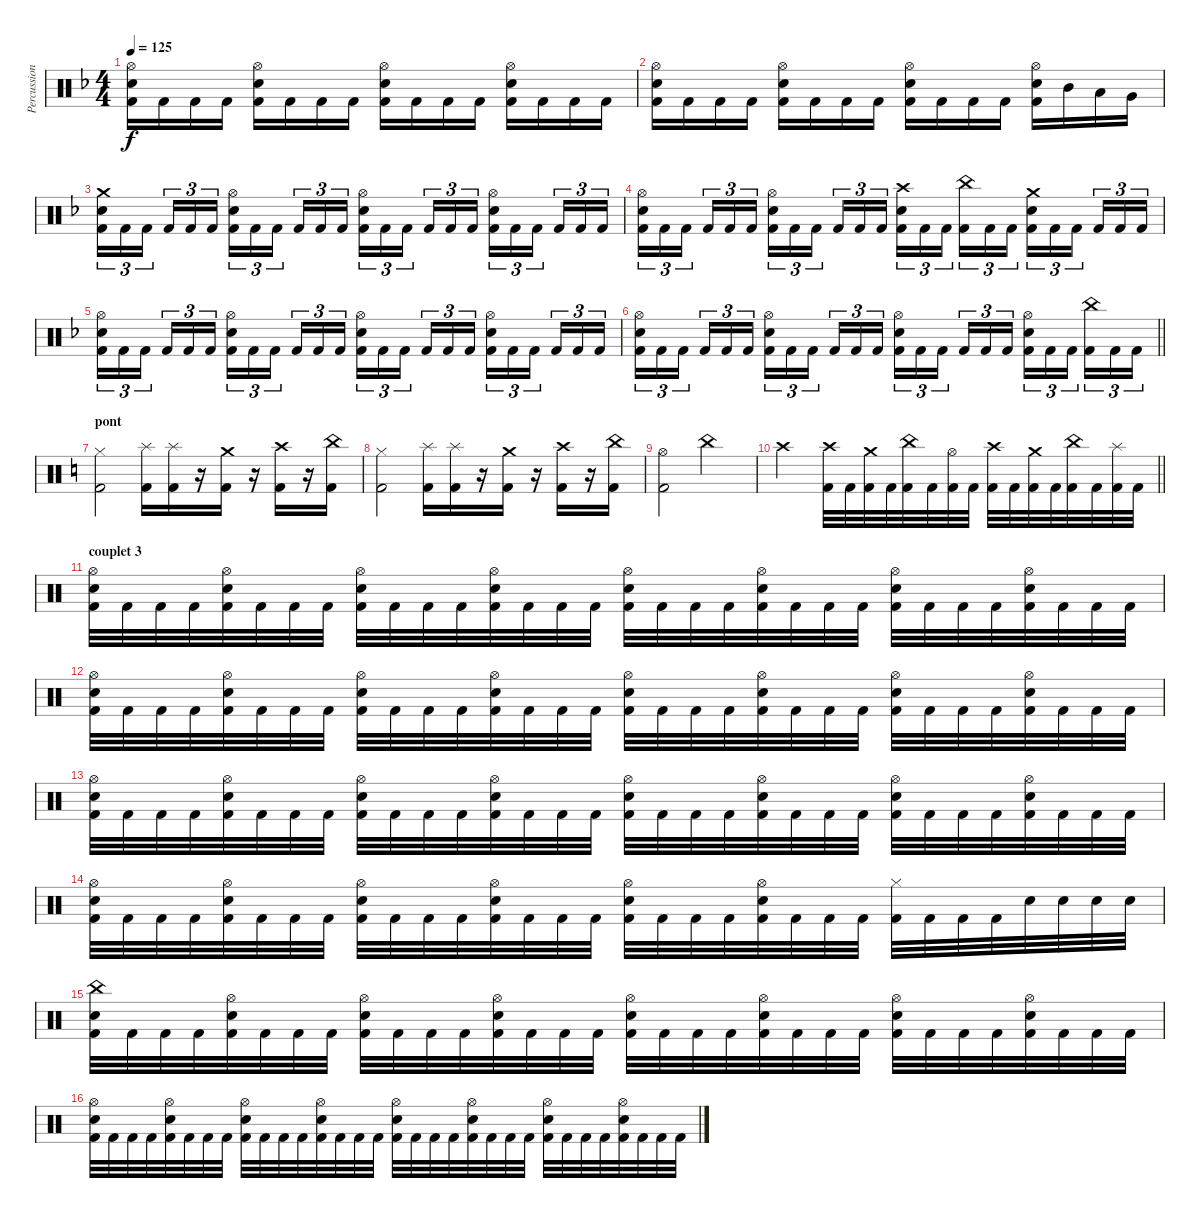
\track ("Percussions" "Percussion") {instrument percussion}
\staff {score}
\articulation defaults
\ts (4 4)
\tempo 125
\clef neutral
\ks dminor
("Hi-Hat (open)" "Electric Snare (hit)" "Kick (hit) 2").16{dy f} "Kick (hit) 2".16 "Kick (hit) 2".16 "Kick (hit) 2".16 ("Hi-Hat (open)" "Electric Snare (hit)" "Kick (hit) 2").16 "Kick (hit) 2".16 "Kick (hit) 2".16 "Kick (hit) 2".16 ("Hi-Hat (open)" "Electric Snare (hit)" "Kick (hit) 2").16 "Kick (hit) 2".16 "Kick (hit) 2".16 "Kick (hit) 2".16 ("Hi-Hat (open)" "Electric Snare (hit)" "Kick (hit) 2").16 "Kick (hit) 2".16 "Kick (hit) 2".16 "Kick (hit) 2".16 |
("Hi-Hat (open)" "Electric Snare (hit)" "Kick (hit) 2").16 "Kick (hit) 2".16 "Kick (hit) 2".16 "Kick (hit) 2".16 ("Hi-Hat (open)" "Electric Snare (hit)" "Kick (hit) 2").16 "Kick (hit) 2".16 "Kick (hit) 2".16 "Kick (hit) 2".16 ("Hi-Hat (open)" "Electric Snare (hit)" "Kick (hit) 2").16 "Kick (hit) 2".16 "Kick (hit) 2".16 "Kick (hit) 2".16 ("Hi-Hat (open)" "Electric Snare (hit)" "Kick (hit) 2").16 "Mid Tom (hit)".16 "Low Tom (hit)".16 "Very Low Tom (hit)".16 |
("Crash medium (hit)" "Electric Snare (hit)" "Kick (hit) 2").16{tu (3 2)} "Kick (hit) 2".16{tu (3 2)} "Kick (hit) 2".16{tu (3 2) beam splitsecondary} "Kick (hit) 2".16{tu (3 2)} "Kick (hit) 2".16{tu (3 2)} "Kick (hit) 2".16{tu (3 2)} ("Hi-Hat (open)" "Electric Snare (hit)" "Kick (hit) 2").16{tu (3 2)} "Kick (hit) 2".16{tu (3 2)} "Kick (hit) 2".16{tu (3 2) beam splitsecondary} "Kick (hit) 2".16{tu (3 2)} "Kick (hit) 2".16{tu (3 2)} "Kick (hit) 2".16{tu (3 2)} ("Hi-Hat (open)" "Electric Snare (hit)" "Kick (hit) 2").16{tu (3 2)} "Kick (hit) 2".16{tu (3 2)} "Kick (hit) 2".16{tu (3 2) beam splitsecondary} "Kick (hit) 2".16{tu (3 2)} "Kick (hit) 2".16{tu (3 2)} "Kick (hit) 2".16{tu (3 2)} ("Hi-Hat (open)" "Electric Snare (hit)" "Kick (hit) 2").16{tu (3 2)} "Kick (hit) 2".16{tu (3 2)} "Kick (hit) 2".16{tu (3 2) beam splitsecondary} "Kick (hit) 2".16{tu (3 2)} "Kick (hit) 2".16{tu (3 2)} "Kick (hit) 2".16{tu (3 2)} |
("Hi-Hat (open)" "Electric Snare (hit)" "Kick (hit) 2").16{tu (3 2)} "Kick (hit) 2".16{tu (3 2)} "Kick (hit) 2".16{tu (3 2) beam splitsecondary} "Kick (hit) 2".16{tu (3 2)} "Kick (hit) 2".16{tu (3 2)} "Kick (hit) 2".16{tu (3 2)} ("Hi-Hat (open)" "Electric Snare (hit)" "Kick (hit) 2").16{tu (3 2)} "Kick (hit) 2".16{tu (3 2)} "Kick (hit) 2".16{tu (3 2) beam splitsecondary} "Kick (hit) 2".16{tu (3 2)} "Kick (hit) 2".16{tu (3 2)} "Kick (hit) 2".16{tu (3 2)} ("Crash high (hit)" "Electric Snare (hit)" "Kick (hit) 2").16{tu (3 2)} "Kick (hit) 2".16{tu (3 2)} "Kick (hit) 2".16{tu (3 2) beam splitsecondary} ("China (hit)" "Kick (hit) 2").16{tu (3 2)} "Kick (hit) 2".16{tu (3 2)} "Kick (hit) 2".16{tu (3 2)} ("Crash medium (hit)" "Electric Snare (hit)" "Kick (hit) 2").16{tu (3 2)} "Kick (hit) 2".16{tu (3 2)} "Kick (hit) 2".16{tu (3 2) beam splitsecondary} "Kick (hit) 2".16{tu (3 2)} "Kick (hit) 2".16{tu (3 2)} "Kick (hit) 2".16{tu (3 2)} |
("Hi-Hat (open)" "Electric Snare (hit)" "Kick (hit) 2").16{tu (3 2)} "Kick (hit) 2".16{tu (3 2)} "Kick (hit) 2".16{tu (3 2) beam splitsecondary} "Kick (hit) 2".16{tu (3 2)} "Kick (hit) 2".16{tu (3 2)} "Kick (hit) 2".16{tu (3 2)} ("Hi-Hat (open)" "Electric Snare (hit)" "Kick (hit) 2").16{tu (3 2)} "Kick (hit) 2".16{tu (3 2)} "Kick (hit) 2".16{tu (3 2) beam splitsecondary} "Kick (hit) 2".16{tu (3 2)} "Kick (hit) 2".16{tu (3 2)} "Kick (hit) 2".16{tu (3 2)} ("Hi-Hat (open)" "Electric Snare (hit)" "Kick (hit) 2").16{tu (3 2)} "Kick (hit) 2".16{tu (3 2)} "Kick (hit) 2".16{tu (3 2) beam splitsecondary} "Kick (hit) 2".16{tu (3 2)} "Kick (hit) 2".16{tu (3 2)} "Kick (hit) 2".16{tu (3 2)} ("Hi-Hat (open)" "Electric Snare (hit)" "Kick (hit) 2").16{tu (3 2)} "Kick (hit) 2".16{tu (3 2)} "Kick (hit) 2".16{tu (3 2) beam splitsecondary} "Kick (hit) 2".16{tu (3 2)} "Kick (hit) 2".16{tu (3 2)} "Kick (hit) 2".16{tu (3 2)} |
\barLineRight lightlight
("Hi-Hat (open)" "Electric Snare (hit)" "Kick (hit) 2").16{tu (3 2)} "Kick (hit) 2".16{tu (3 2)} "Kick (hit) 2".16{tu (3 2) beam splitsecondary} "Kick (hit) 2".16{tu (3 2)} "Kick (hit) 2".16{tu (3 2)} "Kick (hit) 2".16{tu (3 2)} ("Hi-Hat (open)" "Electric Snare (hit)" "Kick (hit) 2").16{tu (3 2)} "Kick (hit) 2".16{tu (3 2)} "Kick (hit) 2".16{tu (3 2) beam splitsecondary} "Kick (hit) 2".16{tu (3 2)} "Kick (hit) 2".16{tu (3 2)} "Kick (hit) 2".16{tu (3 2)} ("Hi-Hat (open)" "Electric Snare (hit)" "Kick (hit) 2").16{tu (3 2)} "Kick (hit) 2".16{tu (3 2)} "Kick (hit) 2".16{tu (3 2) beam splitsecondary} "Kick (hit) 2".16{tu (3 2)} "Kick (hit) 2".16{tu (3 2)} "Kick (hit) 2".16{tu (3 2)} ("Hi-Hat (open)" "Electric Snare (hit)" "Kick (hit) 2").16{tu (3 2)} "Kick (hit) 2".16{tu (3 2)} "Kick (hit) 2".16{tu (3 2) beam splitsecondary} ("China (hit)" "Kick (hit) 2").16{tu (3 2)} "Kick (hit) 2".16{tu (3 2)} "Kick (hit) 2".16{tu (3 2)} |
\section ("" "pont")
\ks c
("Hi-Hat (closed)" "Kick (hit) 2").2 ("Splash (hit)" "Kick (hit) 2").16 ("Splash (hit)" "Kick (hit) 2").16 r.16 ("Crash medium (hit)" "Kick (hit) 2").16 r.16 ("Crash high (hit)" "Kick (hit) 2").16 r.16 ("China (hit)" "Kick (hit) 2").16 |
("Hi-Hat (closed)" "Kick (hit) 2").2 ("Splash (hit)" "Kick (hit) 2").16 ("Splash (hit)" "Kick (hit) 2").16 r.16 ("Crash medium (hit)" "Kick (hit) 2").16 r.16 ("Crash high (hit)" "Kick (hit) 2").16 r.16 ("China (hit)" "Kick (hit) 2").16 |
("Hi-Hat (open)" "Kick (hit) 2").2 "China (hit)".2 |
\barLineRight lightlight "Crash high (hit)".2
("Crash high (hit)" "Kick (hit) 2").32 "Kick (hit) 2".32 ("Crash medium (hit)" "Kick (hit) 2").32 "Kick (hit) 2".32 ("China (hit)" "Kick (hit) 2").32 "Kick (hit) 2".32 ("Hi-Hat (open)" "Kick (hit) 2").32 "Kick (hit) 2".32 ("Crash high (hit)" "Kick (hit) 2").32 "Kick (hit) 2".32 ("Crash medium (hit)" "Kick (hit) 2").32 "Kick (hit) 2".32 ("China (hit)" "Kick (hit) 2").32 "Kick (hit) 2".32 ("Splash (hit)" "Kick (hit) 2").32 "Kick (hit) 2".32 |
\section ("" "couplet 3")
("Hi-Hat (open)" "Electric Snare (hit)" "Kick (hit) 2").32 "Kick (hit) 2".32 "Kick (hit) 2".32 "Kick (hit) 2".32 ("Hi-Hat (open)" "Electric Snare (hit)" "Kick (hit) 2").32 "Kick (hit) 2".32 "Kick (hit) 2".32 "Kick (hit) 2".32 ("Hi-Hat (open)" "Electric Snare (hit)" "Kick (hit) 2").32 "Kick (hit) 2".32 "Kick (hit) 2".32 "Kick (hit) 2".32 ("Hi-Hat (open)" "Electric Snare (hit)" "Kick (hit) 2").32 "Kick (hit) 2".32 "Kick (hit) 2".32 "Kick (hit) 2".32 ("Hi-Hat (open)" "Electric Snare (hit)" "Kick (hit) 2").32 "Kick (hit) 2".32 "Kick (hit) 2".32 "Kick (hit) 2".32 ("Hi-Hat (open)" "Electric Snare (hit)" "Kick (hit) 2").32 "Kick (hit) 2".32 "Kick (hit) 2".32 "Kick (hit) 2".32 ("Hi-Hat (open)" "Electric Snare (hit)" "Kick (hit) 2").32 "Kick (hit) 2".32 "Kick (hit) 2".32 "Kick (hit) 2".32 ("Hi-Hat (open)" "Electric Snare (hit)" "Kick (hit) 2").32 "Kick (hit) 2".32 "Kick (hit) 2".32 "Kick (hit) 2".32 |
("Hi-Hat (open)" "Electric Snare (hit)" "Kick (hit) 2").32 "Kick (hit) 2".32 "Kick (hit) 2".32 "Kick (hit) 2".32 ("Hi-Hat (open)" "Electric Snare (hit)" "Kick (hit) 2").32 "Kick (hit) 2".32 "Kick (hit) 2".32 "Kick (hit) 2".32 ("Hi-Hat (open)" "Electric Snare (hit)" "Kick (hit) 2").32 "Kick (hit) 2".32 "Kick (hit) 2".32 "Kick (hit) 2".32 ("Hi-Hat (open)" "Electric Snare (hit)" "Kick (hit) 2").32 "Kick (hit) 2".32 "Kick (hit) 2".32 "Kick (hit) 2".32 ("Hi-Hat (open)" "Electric Snare (hit)" "Kick (hit) 2").32 "Kick (hit) 2".32 "Kick (hit) 2".32 "Kick (hit) 2".32 ("Hi-Hat (open)" "Electric Snare (hit)" "Kick (hit) 2").32 "Kick (hit) 2".32 "Kick (hit) 2".32 "Kick (hit) 2".32 ("Hi-Hat (open)" "Electric Snare (hit)" "Kick (hit) 2").32 "Kick (hit) 2".32 "Kick (hit) 2".32 "Kick (hit) 2".32 ("Hi-Hat (open)" "Electric Snare (hit)" "Kick (hit) 2").32 "Kick (hit) 2".32 "Kick (hit) 2".32 "Kick (hit) 2".32 |
("Hi-Hat (open)" "Electric Snare (hit)" "Kick (hit) 2").32 "Kick (hit) 2".32 "Kick (hit) 2".32 "Kick (hit) 2".32 ("Hi-Hat (open)" "Electric Snare (hit)" "Kick (hit) 2").32 "Kick (hit) 2".32 "Kick (hit) 2".32 "Kick (hit) 2".32 ("Hi-Hat (open)" "Electric Snare (hit)" "Kick (hit) 2").32 "Kick (hit) 2".32 "Kick (hit) 2".32 "Kick (hit) 2".32 ("Hi-Hat (open)" "Electric Snare (hit)" "Kick (hit) 2").32 "Kick (hit) 2".32 "Kick (hit) 2".32 "Kick (hit) 2".32 ("Hi-Hat (open)" "Electric Snare (hit)" "Kick (hit) 2").32 "Kick (hit) 2".32 "Kick (hit) 2".32 "Kick (hit) 2".32 ("Hi-Hat (open)" "Electric Snare (hit)" "Kick (hit) 2").32 "Kick (hit) 2".32 "Kick (hit) 2".32 "Kick (hit) 2".32 ("Hi-Hat (open)" "Electric Snare (hit)" "Kick (hit) 2").32 "Kick (hit) 2".32 "Kick (hit) 2".32 "Kick (hit) 2".32 ("Hi-Hat (open)" "Electric Snare (hit)" "Kick (hit) 2").32 "Kick (hit) 2".32 "Kick (hit) 2".32 "Kick (hit) 2".32 |
("Hi-Hat (open)" "Electric Snare (hit)" "Kick (hit) 2").32 "Kick (hit) 2".32 "Kick (hit) 2".32 "Kick (hit) 2".32 ("Hi-Hat (open)" "Electric Snare (hit)" "Kick (hit) 2").32 "Kick (hit) 2".32 "Kick (hit) 2".32 "Kick (hit) 2".32 ("Hi-Hat (open)" "Electric Snare (hit)" "Kick (hit) 2").32 "Kick (hit) 2".32 "Kick (hit) 2".32 "Kick (hit) 2".32 ("Hi-Hat (open)" "Electric Snare (hit)" "Kick (hit) 2").32 "Kick (hit) 2".32 "Kick (hit) 2".32 "Kick (hit) 2".32 ("Hi-Hat (open)" "Electric Snare (hit)" "Kick (hit) 2").32 "Kick (hit) 2".32 "Kick (hit) 2".32 "Kick (hit) 2".32 ("Hi-Hat (open)" "Electric Snare (hit)" "Kick (hit) 2").32 "Kick (hit) 2".32 "Kick (hit) 2".32 "Kick (hit) 2".32 ("Hi-Hat (closed)" "Kick (hit) 2").32 "Kick (hit) 2".32 "Kick (hit) 2".32 "Kick (hit) 2".32 "Electric Snare (hit)".32 "Electric Snare (hit)".32 "Electric Snare (hit)".32 "Electric Snare (hit)".32 |
("China (hit)" "Electric Snare (hit)" "Kick (hit) 2").32 "Kick (hit) 2".32 "Kick (hit) 2".32 "Kick (hit) 2".32 ("Hi-Hat (open)" "Electric Snare (hit)" "Kick (hit) 2").32 "Kick (hit) 2".32 "Kick (hit) 2".32 "Kick (hit) 2".32 ("Hi-Hat (open)" "Electric Snare (hit)" "Kick (hit) 2").32 "Kick (hit) 2".32 "Kick (hit) 2".32 "Kick (hit) 2".32 ("Hi-Hat (open)" "Electric Snare (hit)" "Kick (hit) 2").32 "Kick (hit) 2".32 "Kick (hit) 2".32 "Kick (hit) 2".32 ("Hi-Hat (open)" "Electric Snare (hit)" "Kick (hit) 2").32 "Kick (hit) 2".32 "Kick (hit) 2".32 "Kick (hit) 2".32 ("Hi-Hat (open)" "Electric Snare (hit)" "Kick (hit) 2").32 "Kick (hit) 2".32 "Kick (hit) 2".32 "Kick (hit) 2".32 ("Hi-Hat (open)" "Electric Snare (hit)" "Kick (hit) 2").32 "Kick (hit) 2".32 "Kick (hit) 2".32 "Kick (hit) 2".32 ("Hi-Hat (open)" "Electric Snare (hit)" "Kick (hit) 2").32 "Kick (hit) 2".32 "Kick (hit) 2".32 "Kick (hit) 2".32 |
("Hi-Hat (open)" "Electric Snare (hit)" "Kick (hit) 2").32 "Kick (hit) 2".32 "Kick (hit) 2".32 "Kick (hit) 2".32 ("Hi-Hat (open)" "Electric Snare (hit)" "Kick (hit) 2").32 "Kick (hit) 2".32 "Kick (hit) 2".32 "Kick (hit) 2".32 ("Hi-Hat (open)" "Electric Snare (hit)" "Kick (hit) 2").32 "Kick (hit) 2".32 "Kick (hit) 2".32 "Kick (hit) 2".32 ("Hi-Hat (open)" "Electric Snare (hit)" "Kick (hit) 2").32 "Kick (hit) 2".32 "Kick (hit) 2".32 "Kick (hit) 2".32 ("Hi-Hat (open)" "Electric Snare (hit)" "Kick (hit) 2").32 "Kick (hit) 2".32 "Kick (hit) 2".32 "Kick (hit) 2".32 ("Hi-Hat (open)" "Electric Snare (hit)" "Kick (hit) 2").32 "Kick (hit) 2".32 "Kick (hit) 2".32 "Kick (hit) 2".32 ("Hi-Hat (open)" "Electric Snare (hit)" "Kick (hit) 2").32 "Kick (hit) 2".32 "Kick (hit) 2".32 "Kick (hit) 2".32 ("Hi-Hat (open)" "Electric Snare (hit)" "Kick (hit) 2").32 "Kick (hit) 2".32 "Kick (hit) 2".32 "Kick (hit) 2".32
